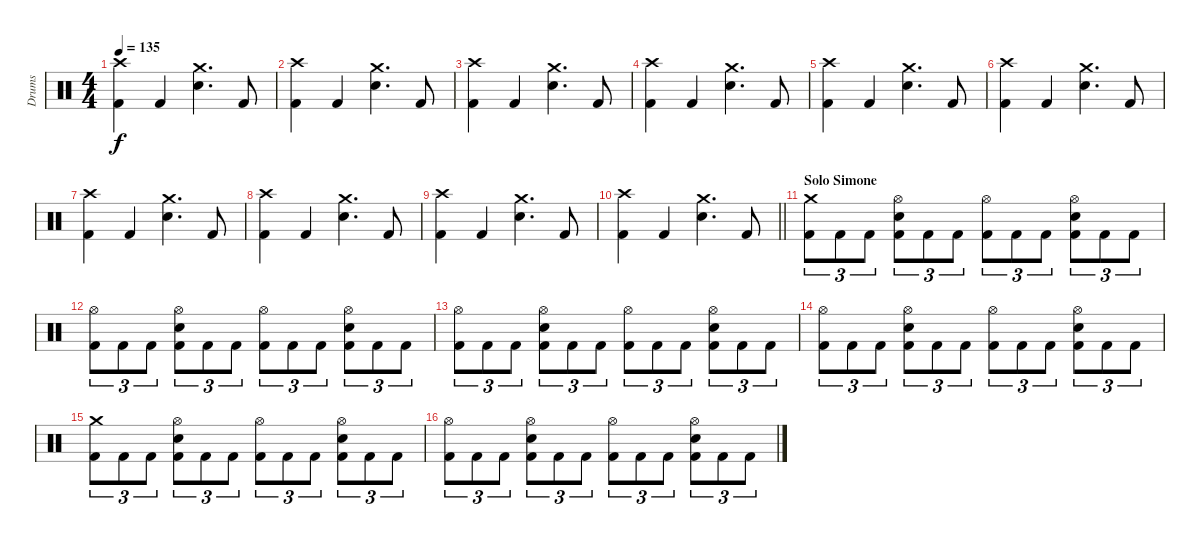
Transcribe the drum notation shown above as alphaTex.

\track ("Drums" "Drums") {instrument percussion}
\staff {score}
\articulation defaults
\ts (4 4)
\tempo 135
\clef neutral
\ks c
("Crash high (hit)" "Kick (hit) 2").4{dy f} "Kick (hit) 2".4 ("Crash medium (hit)" "Snare (hit) 2").4{d} "Kick (hit) 2".8 |
("Crash high (hit)" "Kick (hit) 2").4 "Kick (hit) 2".4 ("Crash medium (hit)" "Snare (hit) 2").4{d} "Kick (hit) 2".8 |
("Crash high (hit)" "Kick (hit) 2").4 "Kick (hit) 2".4 ("Crash medium (hit)" "Snare (hit) 2").4{d} "Kick (hit) 2".8 |
("Crash high (hit)" "Kick (hit) 2").4 "Kick (hit) 2".4 ("Crash medium (hit)" "Snare (hit) 2").4{d} "Kick (hit) 2".8 |
("Crash high (hit)" "Kick (hit) 2").4 "Kick (hit) 2".4 ("Crash medium (hit)" "Snare (hit) 2").4{d} "Kick (hit) 2".8 |
("Crash high (hit)" "Kick (hit) 2").4 "Kick (hit) 2".4 ("Crash medium (hit)" "Snare (hit) 2").4{d} "Kick (hit) 2".8 |
("Crash high (hit)" "Kick (hit) 2").4 "Kick (hit) 2".4 ("Crash medium (hit)" "Snare (hit) 2").4{d} "Kick (hit) 2".8 |
("Crash high (hit)" "Kick (hit) 2").4 "Kick (hit) 2".4 ("Crash medium (hit)" "Snare (hit) 2").4{d} "Kick (hit) 2".8 |
("Crash high (hit)" "Kick (hit) 2").4 "Kick (hit) 2".4 ("Crash medium (hit)" "Snare (hit) 2").4{d} "Kick (hit) 2".8 |
\barLineRight lightlight
("Crash high (hit)" "Kick (hit) 2").4 "Kick (hit) 2".4 ("Crash medium (hit)" "Snare (hit) 2").4{d} "Kick (hit) 2".8 |
\section ("" "Solo Simone")
("Crash medium (hit)" "Kick (hit) 2").8{tu (3 2)} "Kick (hit) 2".8{tu (3 2)} "Kick (hit) 2".8{tu (3 2)} ("Hi-Hat (open)" "Snare (hit) 2" "Kick (hit) 2").8{tu (3 2)} "Kick (hit) 2".8{tu (3 2)} "Kick (hit) 2".8{tu (3 2)} ("Hi-Hat (open)" "Kick (hit) 2").8{tu (3 2)} "Kick (hit) 2".8{tu (3 2)} "Kick (hit) 2".8{tu (3 2)} ("Hi-Hat (open)" "Snare (hit) 2" "Kick (hit) 2").8{tu (3 2)} "Kick (hit) 2".8{tu (3 2)} "Kick (hit) 2".8{tu (3 2)} |
("Hi-Hat (open)" "Kick (hit) 2").8{tu (3 2)} "Kick (hit) 2".8{tu (3 2)} "Kick (hit) 2".8{tu (3 2)} ("Hi-Hat (open)" "Snare (hit) 2" "Kick (hit) 2").8{tu (3 2)} "Kick (hit) 2".8{tu (3 2)} "Kick (hit) 2".8{tu (3 2)} ("Hi-Hat (open)" "Kick (hit) 2").8{tu (3 2)} "Kick (hit) 2".8{tu (3 2)} "Kick (hit) 2".8{tu (3 2)} ("Hi-Hat (open)" "Snare (hit) 2" "Kick (hit) 2").8{tu (3 2)} "Kick (hit) 2".8{tu (3 2)} "Kick (hit) 2".8{tu (3 2)} |
("Hi-Hat (open)" "Kick (hit) 2").8{tu (3 2)} "Kick (hit) 2".8{tu (3 2)} "Kick (hit) 2".8{tu (3 2)} ("Hi-Hat (open)" "Snare (hit) 2" "Kick (hit) 2").8{tu (3 2)} "Kick (hit) 2".8{tu (3 2)} "Kick (hit) 2".8{tu (3 2)} ("Hi-Hat (open)" "Kick (hit) 2").8{tu (3 2)} "Kick (hit) 2".8{tu (3 2)} "Kick (hit) 2".8{tu (3 2)} ("Hi-Hat (open)" "Snare (hit) 2" "Kick (hit) 2").8{tu (3 2)} "Kick (hit) 2".8{tu (3 2)} "Kick (hit) 2".8{tu (3 2)} |
("Hi-Hat (open)" "Kick (hit) 2").8{tu (3 2)} "Kick (hit) 2".8{tu (3 2)} "Kick (hit) 2".8{tu (3 2)} ("Hi-Hat (open)" "Snare (hit) 2" "Kick (hit) 2").8{tu (3 2)} "Kick (hit) 2".8{tu (3 2)} "Kick (hit) 2".8{tu (3 2)} ("Hi-Hat (open)" "Kick (hit) 2").8{tu (3 2)} "Kick (hit) 2".8{tu (3 2)} "Kick (hit) 2".8{tu (3 2)} ("Hi-Hat (open)" "Snare (hit) 2" "Kick (hit) 2").8{tu (3 2)} "Kick (hit) 2".8{tu (3 2)} "Kick (hit) 2".8{tu (3 2)} |
("Crash medium (hit)" "Kick (hit) 2").8{tu (3 2)} "Kick (hit) 2".8{tu (3 2)} "Kick (hit) 2".8{tu (3 2)} ("Hi-Hat (open)" "Snare (hit) 2" "Kick (hit) 2").8{tu (3 2)} "Kick (hit) 2".8{tu (3 2)} "Kick (hit) 2".8{tu (3 2)} ("Hi-Hat (open)" "Kick (hit) 2").8{tu (3 2)} "Kick (hit) 2".8{tu (3 2)} "Kick (hit) 2".8{tu (3 2)} ("Hi-Hat (open)" "Snare (hit) 2" "Kick (hit) 2").8{tu (3 2)} "Kick (hit) 2".8{tu (3 2)} "Kick (hit) 2".8{tu (3 2)} |
("Hi-Hat (open)" "Kick (hit) 2").8{tu (3 2)} "Kick (hit) 2".8{tu (3 2)} "Kick (hit) 2".8{tu (3 2)} ("Hi-Hat (open)" "Snare (hit) 2" "Kick (hit) 2").8{tu (3 2)} "Kick (hit) 2".8{tu (3 2)} "Kick (hit) 2".8{tu (3 2)} ("Hi-Hat (open)" "Kick (hit) 2").8{tu (3 2)} "Kick (hit) 2".8{tu (3 2)} "Kick (hit) 2".8{tu (3 2)} ("Hi-Hat (open)" "Snare (hit) 2" "Kick (hit) 2").8{tu (3 2)} "Kick (hit) 2".8{tu (3 2)} "Kick (hit) 2".8{tu (3 2)}
